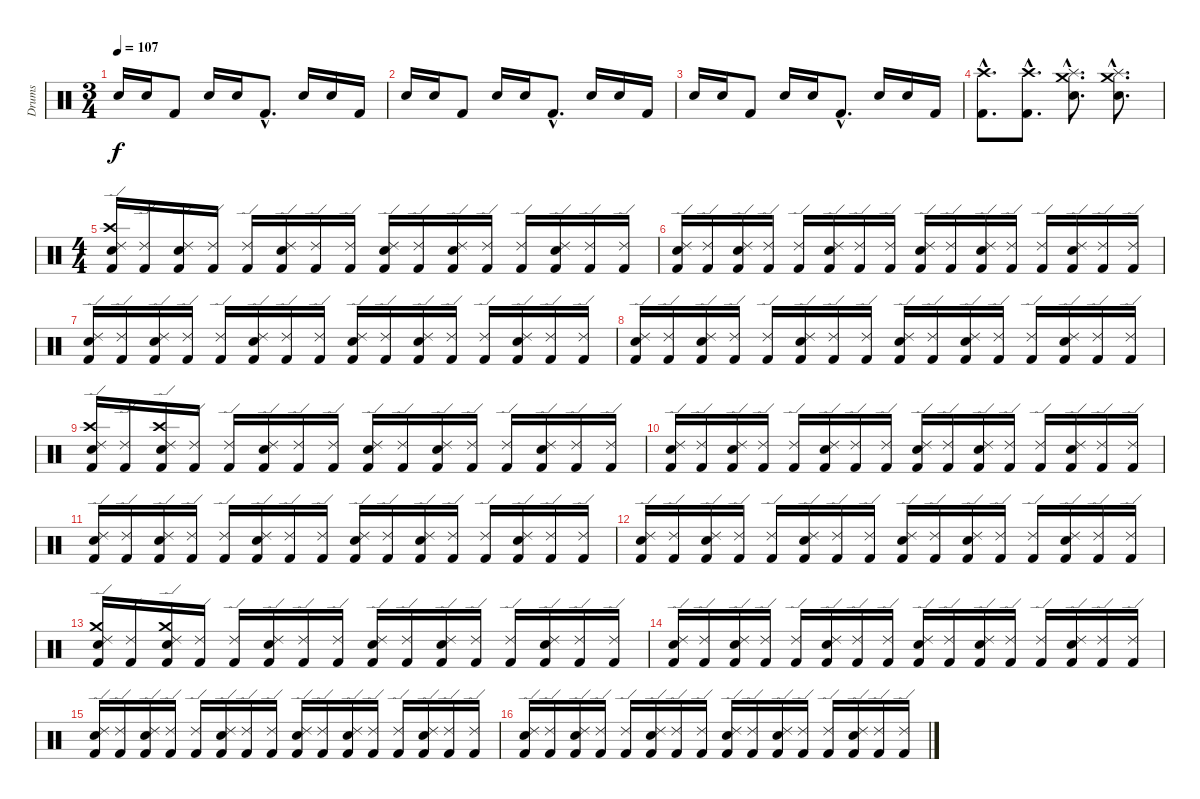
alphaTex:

\track ("Drums" "Drums") {instrument percussion}
\staff {score}
\articulation defaults
\ts (3 4)
\tempo 107
\clef neutral
\ks c "Electric Snare (hit)".16{dy f} "Electric Snare (hit)".16 "Kick (hit) 2".8 "Electric Snare (hit)".16 "Electric Snare (hit)".16 "Kick (hit) 2"{hac}.8{d} "Electric Snare (hit)".16 "Electric Snare (hit)".16 "Kick (hit) 2".16
|
"Electric Snare (hit)".16 "Electric Snare (hit)".16 "Kick (hit) 2".8 "Electric Snare (hit)".16 "Electric Snare (hit)".16 "Kick (hit) 2"{hac}.8{d} "Electric Snare (hit)".16 "Electric Snare (hit)".16 "Kick (hit) 2".16 |
"Electric Snare (hit)".16 "Electric Snare (hit)".16 "Kick (hit) 2".8 "Electric Snare (hit)".16 "Electric Snare (hit)".16 "Kick (hit) 2"{hac}.8{d} "Electric Snare (hit)".16 "Electric Snare (hit)".16 "Kick (hit) 2".16 |
("Kick (hit) 2"{hac} "Crash high (hit)"{hac}).8{d} ("Kick (hit) 2"{hac} "Crash high (hit)"{hac}).8{d} ("Electric Snare (hit)"{hac} "Splash (hit)"{hac} "Crash medium (hit)"{hac}).8{d} ("Electric Snare (hit)"{hac} "Splash (hit)"{hac} "Crash medium (hit)"{hac}).8{d} |
\ts (4 4)
("Kick (hit) 2" "Electric Snare (hit)" "Ride (edge) 2" "Crash high (hit)").16 ("Kick (hit) 2" "Ride (edge) 2").16 ("Kick (hit) 2" "Electric Snare (hit)" "Ride (edge) 2").16 ("Kick (hit) 2" "Ride (edge) 2").16 ("Kick (hit) 2" "Ride (edge) 2").16 ("Kick (hit) 2" "Electric Snare (hit)" "Ride (edge) 2").16 ("Kick (hit) 2" "Ride (edge) 2").16 ("Kick (hit) 2" "Ride (edge) 2").16 ("Kick (hit) 2" "Electric Snare (hit)" "Ride (edge) 2").16 ("Kick (hit) 2" "Ride (edge) 2").16 ("Kick (hit) 2" "Electric Snare (hit)" "Ride (edge) 2").16 ("Kick (hit) 2" "Ride (edge) 2").16 ("Kick (hit) 2" "Ride (edge) 2").16 ("Kick (hit) 2" "Electric Snare (hit)" "Ride (edge) 2").16 ("Kick (hit) 2" "Ride (edge) 2").16 ("Kick (hit) 2" "Ride (edge) 2").16 |
("Kick (hit) 2" "Electric Snare (hit)" "Ride (edge) 2").16 ("Kick (hit) 2" "Ride (edge) 2").16 ("Kick (hit) 2" "Electric Snare (hit)" "Ride (edge) 2").16 ("Kick (hit) 2" "Ride (edge) 2").16 ("Kick (hit) 2" "Ride (edge) 2").16 ("Kick (hit) 2" "Electric Snare (hit)" "Ride (edge) 2").16 ("Kick (hit) 2" "Ride (edge) 2").16 ("Kick (hit) 2" "Ride (edge) 2").16 ("Kick (hit) 2" "Electric Snare (hit)" "Ride (edge) 2").16 ("Kick (hit) 2" "Ride (edge) 2").16 ("Kick (hit) 2" "Electric Snare (hit)" "Ride (edge) 2").16 ("Kick (hit) 2" "Ride (edge) 2").16 ("Kick (hit) 2" "Ride (edge) 2").16 ("Kick (hit) 2" "Electric Snare (hit)" "Ride (edge) 2").16 ("Kick (hit) 2" "Ride (edge) 2").16 ("Kick (hit) 2" "Ride (edge) 2").16 |
("Kick (hit) 2" "Electric Snare (hit)" "Ride (edge) 2").16 ("Kick (hit) 2" "Ride (edge) 2").16 ("Kick (hit) 2" "Electric Snare (hit)" "Ride (edge) 2").16 ("Kick (hit) 2" "Ride (edge) 2").16 ("Kick (hit) 2" "Ride (edge) 2").16 ("Kick (hit) 2" "Electric Snare (hit)" "Ride (edge) 2").16 ("Kick (hit) 2" "Ride (edge) 2").16 ("Kick (hit) 2" "Ride (edge) 2").16 ("Kick (hit) 2" "Electric Snare (hit)" "Ride (edge) 2").16 ("Kick (hit) 2" "Ride (edge) 2").16 ("Kick (hit) 2" "Electric Snare (hit)" "Ride (edge) 2").16 ("Kick (hit) 2" "Ride (edge) 2").16 ("Kick (hit) 2" "Ride (edge) 2").16 ("Kick (hit) 2" "Electric Snare (hit)" "Ride (edge) 2").16 ("Kick (hit) 2" "Ride (edge) 2").16 ("Kick (hit) 2" "Ride (edge) 2").16 |
("Kick (hit) 2" "Electric Snare (hit)" "Ride (edge) 2").16 ("Kick (hit) 2" "Ride (edge) 2").16 ("Kick (hit) 2" "Electric Snare (hit)" "Ride (edge) 2").16 ("Kick (hit) 2" "Ride (edge) 2").16 ("Kick (hit) 2" "Ride (edge) 2").16 ("Kick (hit) 2" "Electric Snare (hit)" "Ride (edge) 2").16 ("Kick (hit) 2" "Ride (edge) 2").16 ("Kick (hit) 2" "Ride (edge) 2").16 ("Kick (hit) 2" "Electric Snare (hit)" "Ride (edge) 2").16 ("Kick (hit) 2" "Ride (edge) 2").16 ("Kick (hit) 2" "Electric Snare (hit)" "Ride (edge) 2").16 ("Kick (hit) 2" "Ride (edge) 2").16 ("Kick (hit) 2" "Ride (edge) 2").16 ("Kick (hit) 2" "Electric Snare (hit)" "Ride (edge) 2").16 ("Kick (hit) 2" "Ride (edge) 2").16 ("Kick (hit) 2" "Ride (edge) 2").16 |
("Kick (hit) 2" "Electric Snare (hit)" "Ride (edge) 2" "Crash high (hit)").16 ("Kick (hit) 2" "Ride (edge) 2").16 ("Kick (hit) 2" "Electric Snare (hit)" "Ride (edge) 2" "Crash high (hit)").16 ("Kick (hit) 2" "Ride (edge) 2").16 ("Kick (hit) 2" "Ride (edge) 2").16 ("Kick (hit) 2" "Electric Snare (hit)" "Ride (edge) 2").16 ("Kick (hit) 2" "Ride (edge) 2").16 ("Kick (hit) 2" "Ride (edge) 2").16 ("Kick (hit) 2" "Electric Snare (hit)" "Ride (edge) 2").16 ("Kick (hit) 2" "Ride (edge) 2").16 ("Kick (hit) 2" "Electric Snare (hit)" "Ride (edge) 2").16 ("Kick (hit) 2" "Ride (edge) 2").16 ("Kick (hit) 2" "Ride (edge) 2").16 ("Kick (hit) 2" "Electric Snare (hit)" "Ride (edge) 2").16 ("Kick (hit) 2" "Ride (edge) 2").16 ("Kick (hit) 2" "Ride (edge) 2").16 |
("Kick (hit) 2" "Electric Snare (hit)" "Ride (edge) 2").16 ("Kick (hit) 2" "Ride (edge) 2").16 ("Kick (hit) 2" "Electric Snare (hit)" "Ride (edge) 2").16 ("Kick (hit) 2" "Ride (edge) 2").16 ("Kick (hit) 2" "Ride (edge) 2").16 ("Kick (hit) 2" "Electric Snare (hit)" "Ride (edge) 2").16 ("Kick (hit) 2" "Ride (edge) 2").16 ("Kick (hit) 2" "Ride (edge) 2").16 ("Kick (hit) 2" "Electric Snare (hit)" "Ride (edge) 2").16 ("Kick (hit) 2" "Ride (edge) 2").16 ("Kick (hit) 2" "Electric Snare (hit)" "Ride (edge) 2").16 ("Kick (hit) 2" "Ride (edge) 2").16 ("Kick (hit) 2" "Ride (edge) 2").16 ("Kick (hit) 2" "Electric Snare (hit)" "Ride (edge) 2").16 ("Kick (hit) 2" "Ride (edge) 2").16 ("Kick (hit) 2" "Ride (edge) 2").16 |
("Kick (hit) 2" "Electric Snare (hit)" "Ride (edge) 2").16 ("Kick (hit) 2" "Ride (edge) 2").16 ("Kick (hit) 2" "Electric Snare (hit)" "Ride (edge) 2").16 ("Kick (hit) 2" "Ride (edge) 2").16 ("Kick (hit) 2" "Ride (edge) 2").16 ("Kick (hit) 2" "Electric Snare (hit)" "Ride (edge) 2").16 ("Kick (hit) 2" "Ride (edge) 2").16 ("Kick (hit) 2" "Ride (edge) 2").16 ("Kick (hit) 2" "Electric Snare (hit)" "Ride (edge) 2").16 ("Kick (hit) 2" "Ride (edge) 2").16 ("Kick (hit) 2" "Electric Snare (hit)" "Ride (edge) 2").16 ("Kick (hit) 2" "Ride (edge) 2").16 ("Kick (hit) 2" "Ride (edge) 2").16 ("Kick (hit) 2" "Electric Snare (hit)" "Ride (edge) 2").16 ("Kick (hit) 2" "Ride (edge) 2").16 ("Kick (hit) 2" "Ride (edge) 2").16 |
("Kick (hit) 2" "Electric Snare (hit)" "Ride (edge) 2").16 ("Kick (hit) 2" "Ride (edge) 2").16 ("Kick (hit) 2" "Electric Snare (hit)" "Ride (edge) 2").16 ("Kick (hit) 2" "Ride (edge) 2").16 ("Kick (hit) 2" "Ride (edge) 2").16 ("Kick (hit) 2" "Electric Snare (hit)" "Ride (edge) 2").16 ("Kick (hit) 2" "Ride (edge) 2").16 ("Kick (hit) 2" "Ride (edge) 2").16 ("Kick (hit) 2" "Electric Snare (hit)" "Ride (edge) 2").16 ("Kick (hit) 2" "Ride (edge) 2").16 ("Kick (hit) 2" "Electric Snare (hit)" "Ride (edge) 2").16 ("Kick (hit) 2" "Ride (edge) 2").16 ("Kick (hit) 2" "Ride (edge) 2").16 ("Kick (hit) 2" "Electric Snare (hit)" "Ride (edge) 2").16 ("Kick (hit) 2" "Ride (edge) 2").16 ("Kick (hit) 2" "Ride (edge) 2").16 |
("Kick (hit) 2" "Electric Snare (hit)" "Ride (edge) 2" "Crash medium (hit)").16 ("Kick (hit) 2" "Ride (edge) 2").16 ("Kick (hit) 2" "Electric Snare (hit)" "Ride (edge) 2" "Crash medium (hit)").16 ("Kick (hit) 2" "Ride (edge) 2").16 ("Kick (hit) 2" "Ride (edge) 2").16 ("Kick (hit) 2" "Electric Snare (hit)" "Ride (edge) 2").16 ("Kick (hit) 2" "Ride (edge) 2").16 ("Kick (hit) 2" "Ride (edge) 2").16 ("Kick (hit) 2" "Electric Snare (hit)" "Ride (edge) 2").16 ("Kick (hit) 2" "Ride (edge) 2").16 ("Kick (hit) 2" "Electric Snare (hit)" "Ride (edge) 2").16 ("Kick (hit) 2" "Ride (edge) 2").16 ("Kick (hit) 2" "Ride (edge) 2").16 ("Kick (hit) 2" "Electric Snare (hit)" "Ride (edge) 2").16 ("Kick (hit) 2" "Ride (edge) 2").16 ("Kick (hit) 2" "Ride (edge) 2").16 |
("Kick (hit) 2" "Electric Snare (hit)" "Ride (edge) 2").16 ("Kick (hit) 2" "Ride (edge) 2").16 ("Kick (hit) 2" "Electric Snare (hit)" "Ride (edge) 2").16 ("Kick (hit) 2" "Ride (edge) 2").16 ("Kick (hit) 2" "Ride (edge) 2").16 ("Kick (hit) 2" "Electric Snare (hit)" "Ride (edge) 2").16 ("Kick (hit) 2" "Ride (edge) 2").16 ("Kick (hit) 2" "Ride (edge) 2").16 ("Kick (hit) 2" "Electric Snare (hit)" "Ride (edge) 2").16 ("Kick (hit) 2" "Ride (edge) 2").16 ("Kick (hit) 2" "Electric Snare (hit)" "Ride (edge) 2").16 ("Kick (hit) 2" "Ride (edge) 2").16 ("Kick (hit) 2" "Ride (edge) 2").16 ("Kick (hit) 2" "Electric Snare (hit)" "Ride (edge) 2").16 ("Kick (hit) 2" "Ride (edge) 2").16 ("Kick (hit) 2" "Ride (edge) 2").16 |
("Kick (hit) 2" "Electric Snare (hit)" "Ride (edge) 2").16 ("Kick (hit) 2" "Ride (edge) 2").16 ("Kick (hit) 2" "Electric Snare (hit)" "Ride (edge) 2").16 ("Kick (hit) 2" "Ride (edge) 2").16 ("Kick (hit) 2" "Ride (edge) 2").16 ("Kick (hit) 2" "Electric Snare (hit)" "Ride (edge) 2").16 ("Kick (hit) 2" "Ride (edge) 2").16 ("Kick (hit) 2" "Ride (edge) 2").16 ("Kick (hit) 2" "Electric Snare (hit)" "Ride (edge) 2").16 ("Kick (hit) 2" "Ride (edge) 2").16 ("Kick (hit) 2" "Electric Snare (hit)" "Ride (edge) 2").16 ("Kick (hit) 2" "Ride (edge) 2").16 ("Kick (hit) 2" "Ride (edge) 2").16 ("Kick (hit) 2" "Electric Snare (hit)" "Ride (edge) 2").16 ("Kick (hit) 2" "Ride (edge) 2").16 ("Kick (hit) 2" "Ride (edge) 2").16 |
("Kick (hit) 2" "Electric Snare (hit)" "Ride (edge) 2").16 ("Kick (hit) 2" "Ride (edge) 2").16 ("Kick (hit) 2" "Electric Snare (hit)" "Ride (edge) 2").16 ("Kick (hit) 2" "Ride (edge) 2").16 ("Kick (hit) 2" "Ride (edge) 2").16 ("Kick (hit) 2" "Electric Snare (hit)" "Ride (edge) 2").16 ("Kick (hit) 2" "Ride (edge) 2").16 ("Kick (hit) 2" "Ride (edge) 2").16 ("Kick (hit) 2" "Electric Snare (hit)" "Ride (edge) 2").16 ("Kick (hit) 2" "Ride (edge) 2").16 ("Kick (hit) 2" "Electric Snare (hit)" "Ride (edge) 2").16 ("Kick (hit) 2" "Ride (edge) 2").16 ("Kick (hit) 2" "Ride (edge) 2").16 ("Kick (hit) 2" "Electric Snare (hit)" "Ride (edge) 2").16 ("Kick (hit) 2" "Ride (edge) 2").16 ("Kick (hit) 2" "Ride (edge) 2").16
